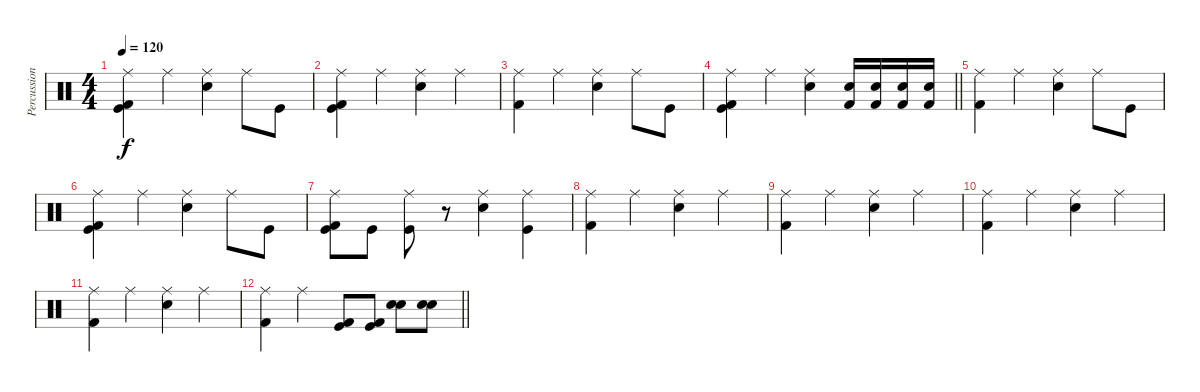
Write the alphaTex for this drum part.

\track ("Percussions" "Percussion") {instrument percussion}
\staff {score}
\articulation defaults
\ts (4 4)
\tempo 120
\clef neutral
\ks c
("Kick (hit) 2" "Kick (hit)" "Ride (middle)").4{dy f} "Ride (middle)".4 ("Electric Snare (hit)" "Ride (middle)").4 "Ride (middle)".8 "Kick (hit)".8 |
("Kick (hit) 2" "Kick (hit)" "Ride (middle)").4 "Ride (middle)".4 ("Electric Snare (hit)" "Ride (middle)").4 "Ride (middle)".4 |
("Kick (hit) 2" "Ride (middle)").4 "Ride (middle)".4 ("Electric Snare (hit)" "Ride (middle)").4 "Ride (middle)".8 "Kick (hit)".8 |
\barLineRight lightlight
("Kick (hit) 2" "Kick (hit)" "Ride (middle)").4 "Ride (middle)".4 ("Electric Snare (hit)" "Ride (middle)").4 ("Kick (hit) 2" "Electric Snare (hit)").16 ("Kick (hit) 2" "Electric Snare (hit)").16 ("Kick (hit) 2" "Electric Snare (hit)").16 ("Kick (hit) 2" "Electric Snare (hit)").16 |
("Kick (hit) 2" "Ride (middle)").4 "Ride (middle)".4 ("Electric Snare (hit)" "Ride (middle)").4 "Ride (middle)".8 "Kick (hit)".8 |
("Kick (hit) 2" "Kick (hit)" "Ride (middle)").4 "Ride (middle)".4 ("Electric Snare (hit)" "Ride (middle)").4 "Ride (middle)".8 "Kick (hit)".8 |
("Kick (hit) 2" "Kick (hit)" "Ride (middle)").8 "Kick (hit)".8 ("Kick (hit)" "Ride (middle)").8 r.8 ("Electric Snare (hit)" "Ride (middle)").4 ("Kick (hit)" "Ride (middle)").4 |
("Kick (hit) 2" "Ride (middle)").4 "Ride (middle)".4 ("Electric Snare (hit)" "Ride (middle)").4 "Ride (middle)".4 |
("Kick (hit) 2" "Ride (middle)").4 "Ride (middle)".4 ("Electric Snare (hit)" "Ride (middle)").4 "Ride (middle)".4 |
("Kick (hit) 2" "Ride (middle)").4 "Ride (middle)".4 ("Electric Snare (hit)" "Ride (middle)").4 "Ride (middle)".4 |
("Kick (hit) 2" "Ride (middle)").4 "Ride (middle)".4 ("Electric Snare (hit)" "Ride (middle)").4 "Ride (middle)".4 |
\barLineRight lightlight
("Kick (hit) 2" "Ride (middle)").4 "Ride (middle)".4 ("Kick (hit) 2" "Kick (hit)").8 ("Kick (hit) 2" "Kick (hit)").8 ("Electric Snare (hit)" "Snare (hit) 2").8 ("Electric Snare (hit)" "Snare (hit) 2").8
